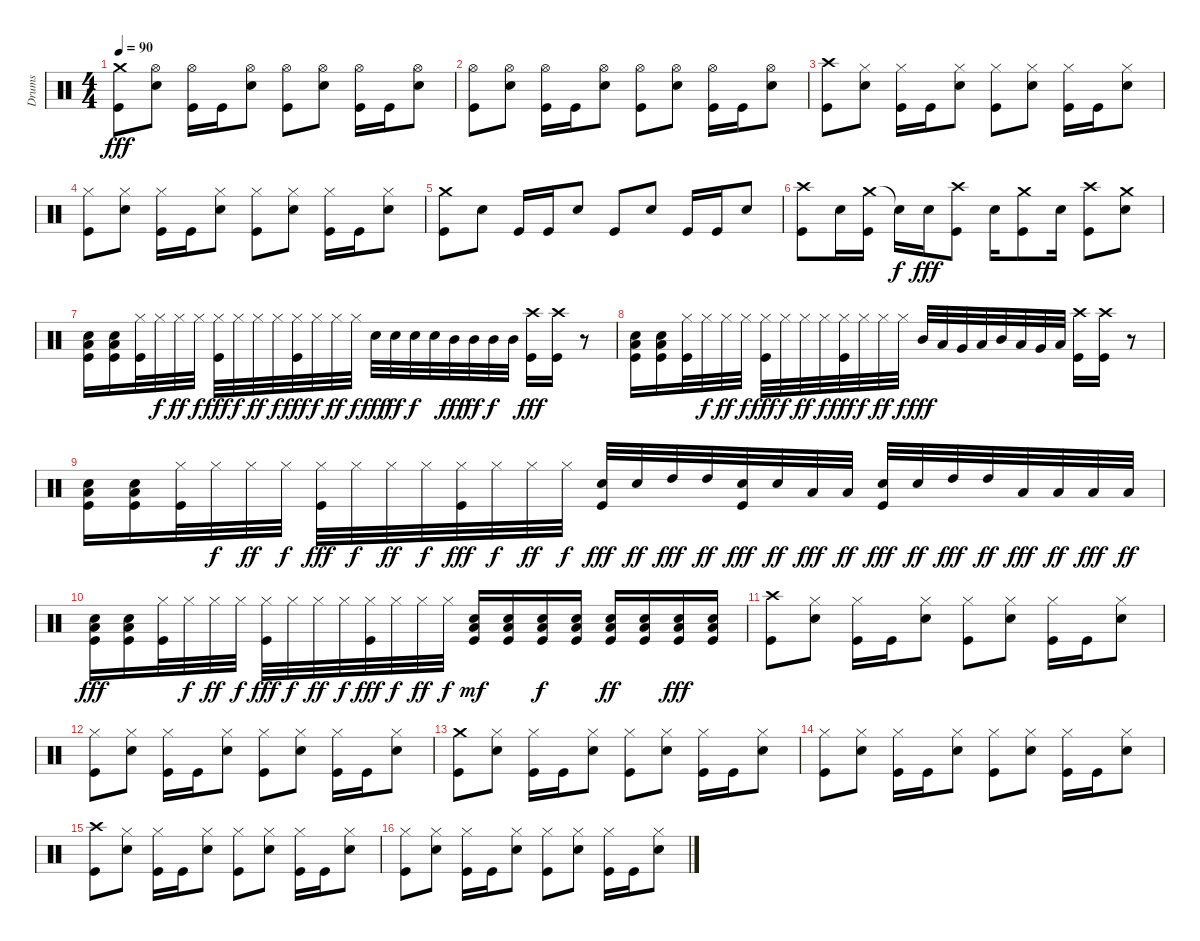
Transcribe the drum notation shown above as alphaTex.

\track ("Drums" "Drums") {instrument percussion}
\staff {score}
\articulation defaults
\ts (4 4)
\tempo 90
\clef neutral
\ks c
("Crash medium (hit)" "Kick (hit)").8{dy fff} ("Hi-Hat (open)" "Snare (hit) 2").8 ("Hi-Hat (open)" "Kick (hit)").16 "Kick (hit)".16 ("Hi-Hat (open)" "Snare (hit) 2").8 ("Hi-Hat (open)" "Kick (hit)").8 ("Hi-Hat (open)" "Snare (hit) 2").8 ("Hi-Hat (open)" "Kick (hit)").16 "Kick (hit)".16 ("Hi-Hat (open)" "Snare (hit) 2").8 |
("Hi-Hat (open)" "Kick (hit)").8 ("Hi-Hat (open)" "Snare (hit) 2").8 ("Hi-Hat (open)" "Kick (hit)").16 "Kick (hit)".16 ("Hi-Hat (open)" "Snare (hit) 2").8 ("Hi-Hat (open)" "Kick (hit)").8 ("Hi-Hat (open)" "Snare (hit) 2").8 ("Hi-Hat (open)" "Kick (hit)").16 "Kick (hit)".16 ("Hi-Hat (open)" "Snare (hit) 2").8 |
("Crash high (hit)" "Kick (hit)").8 ("Hi-Hat (closed)" "Snare (hit) 2").8 ("Hi-Hat (closed)" "Kick (hit)").16 "Kick (hit)".16 ("Hi-Hat (closed)" "Snare (hit) 2").8 ("Hi-Hat (closed)" "Kick (hit)").8 ("Hi-Hat (closed)" "Snare (hit) 2").8 ("Hi-Hat (closed)" "Kick (hit)").16 "Kick (hit)".16 ("Hi-Hat (closed)" "Snare (hit) 2").8 |
("Hi-Hat (closed)" "Kick (hit)").8 ("Hi-Hat (closed)" "Snare (hit) 2").8 ("Hi-Hat (closed)" "Kick (hit)").16 "Kick (hit)".16 ("Hi-Hat (closed)" "Snare (hit) 2").8 ("Hi-Hat (closed)" "Kick (hit)").8 ("Hi-Hat (closed)" "Snare (hit) 2").8 ("Hi-Hat (closed)" "Kick (hit)").16 "Kick (hit)".16 ("Hi-Hat (closed)" "Snare (hit) 2").8 |
("Crash medium (hit)" "Kick (hit)").8 "Snare (hit) 2".8 "Kick (hit)".16 "Kick (hit)".16 "Snare (hit) 2".8 "Kick (hit)".8 "Snare (hit) 2".8 "Kick (hit)".16 "Kick (hit)".16 "Snare (hit) 2".8 |
("Crash high (hit)" "Kick (hit)").8 "Snare (hit) 2".16 ("Crash medium (hit)" "Kick (hit)").16 "Snare (hit)"{t}.16{dy f} "Snare (hit) 2".16{dy fff} ("Crash high (hit)" "Kick (hit)").8 "Snare (hit) 2".16 ("Crash medium (hit)" "Kick (hit)").8 "Snare (hit) 2".16 ("Crash high (hit)" "Kick (hit)").8 ("Crash medium (hit)" "Snare (hit) 2").8 |
("Low Floor Tom (hit)" "Snare (hit) 2" "Kick (hit)").16 ("Low Floor Tom (hit)" "Snare (hit) 2" "Kick (hit)").16 ("Hi-Hat (closed)" "Kick (hit)").32 "Hi-Hat (closed)".32{dy f} "Hi-Hat (closed)".32{dy ff} "Hi-Hat (closed)".32{dy f} ("Hi-Hat (closed)" "Kick (hit)").32{dy fff} "Hi-Hat (closed)".32{dy f} "Hi-Hat (closed)".32{dy ff} "Hi-Hat (closed)".32{dy f} ("Hi-Hat (closed)" "Kick (hit)").32{dy fff} "Hi-Hat (closed)".32{dy f} "Hi-Hat (closed)".32{dy ff} "Hi-Hat (closed)".32{dy f} "Snare (hit) 2".32{dy fff} "Snare (hit) 2".32{dy ff} "Snare (hit) 2".32{dy f} "Snare (hit) 2".32 "Mid Tom (hit)".32{dy fff} "Mid Tom (hit)".32{dy ff} "Mid Tom (hit)".32{dy f} "Mid Tom (hit)".32 ("Crash high (hit)" "Kick (hit)").16{dy fff} ("Crash high (hit)" "Kick (hit)").16 r.8 |
("Low Floor Tom (hit)" "Snare (hit) 2" "Kick (hit)").16 ("Low Floor Tom (hit)" "Snare (hit) 2" "Kick (hit)").16 ("Hi-Hat (closed)" "Kick (hit)").32 "Hi-Hat (closed)".32{dy f} "Hi-Hat (closed)".32{dy ff} "Hi-Hat (closed)".32{dy f} ("Hi-Hat (closed)" "Kick (hit)").32{dy fff} "Hi-Hat (closed)".32{dy f} "Hi-Hat (closed)".32{dy ff} "Hi-Hat (closed)".32{dy f} ("Hi-Hat (closed)" "Kick (hit)").32{dy fff} "Hi-Hat (closed)".32{dy f} "Hi-Hat (closed)".32{dy ff} "Hi-Hat (closed)".32{dy f} "Mid Tom (hit)".32{dy fff} "Low Tom (hit)".32 "Very Low Tom (hit)".32 "Low Floor Tom (hit)".32 "Mid Tom (hit)".32 "Low Tom (hit)".32 "Very Low Tom (hit)".32 "Low Floor Tom (hit)".32 ("Crash high (hit)" "Kick (hit)").16 ("Crash high (hit)" "Kick (hit)").16 r.8 |
("Low Floor Tom (hit)" "Snare (hit) 2" "Kick (hit)").16 ("Low Floor Tom (hit)" "Snare (hit) 2" "Kick (hit)").16 ("Hi-Hat (closed)" "Kick (hit)").32 "Hi-Hat (closed)".32{dy f} "Hi-Hat (closed)".32{dy ff} "Hi-Hat (closed)".32{dy f} ("Hi-Hat (closed)" "Kick (hit)").32{dy fff} "Hi-Hat (closed)".32{dy f} "Hi-Hat (closed)".32{dy ff} "Hi-Hat (closed)".32{dy f} ("Hi-Hat (closed)" "Kick (hit)").32{dy fff} "Hi-Hat (closed)".32{dy f} "Hi-Hat (closed)".32{dy ff} "Hi-Hat (closed)".32{dy f} ("Snare (hit) 2" "Kick (hit)").32{dy fff} "Snare (hit) 2".32{dy ff} "High Tom (hit)".32{dy fff} "High Tom (hit)".32{dy ff} ("Snare (hit) 2" "Kick (hit)").32{dy fff} "Snare (hit) 2".32{dy ff} "Low Tom (hit)".32{dy fff} "Low Tom (hit)".32{dy ff} ("Snare (hit) 2" "Kick (hit)").32{dy fff} "Snare (hit) 2".32{dy ff} "High Tom (hit)".32{dy fff} "High Tom (hit)".32{dy ff} "Low Tom (hit)".32{dy fff} "Low Tom (hit)".32{dy ff} "Low Floor Tom (hit)".32{dy fff} "Low Floor Tom (hit)".32{dy ff} |
("Low Floor Tom (hit)" "Snare (hit) 2" "Kick (hit)").16{dy fff} ("Low Floor Tom (hit)" "Snare (hit) 2" "Kick (hit)").16 ("Hi-Hat (closed)" "Kick (hit)").32 "Hi-Hat (closed)".32{dy f} "Hi-Hat (closed)".32{dy ff} "Hi-Hat (closed)".32{dy f} ("Hi-Hat (closed)" "Kick (hit)").32{dy fff} "Hi-Hat (closed)".32{dy f} "Hi-Hat (closed)".32{dy ff} "Hi-Hat (closed)".32{dy f} ("Hi-Hat (closed)" "Kick (hit)").32{dy fff} "Hi-Hat (closed)".32{dy f} "Hi-Hat (closed)".32{dy ff} "Hi-Hat (closed)".32{dy f} ("Low Tom (hit)" "Snare (hit) 2" "Kick (hit)").16{dy mf} ("Low Tom (hit)" "Snare (hit) 2" "Kick (hit)").16 ("Low Tom (hit)" "Snare (hit) 2" "Kick (hit)").16{dy f} ("Low Tom (hit)" "Snare (hit) 2" "Kick (hit)").16 ("Low Tom (hit)" "Snare (hit) 2" "Kick (hit)").16{dy ff} ("Low Tom (hit)" "Snare (hit) 2" "Kick (hit)").16 ("Low Tom (hit)" "Snare (hit) 2" "Kick (hit)").16{dy fff} ("Low Tom (hit)" "Snare (hit) 2" "Kick (hit)").16 |
("Crash high (hit)" "Kick (hit)").8 ("Hi-Hat (closed)" "Snare (hit) 2").8 ("Hi-Hat (closed)" "Kick (hit)").16 "Kick (hit)".16 ("Hi-Hat (closed)" "Snare (hit) 2").8 ("Hi-Hat (closed)" "Kick (hit)").8 ("Hi-Hat (closed)" "Snare (hit) 2").8 ("Hi-Hat (closed)" "Kick (hit)").16 "Kick (hit)".16 ("Hi-Hat (closed)" "Snare (hit) 2").8 |
("Hi-Hat (closed)" "Kick (hit)").8 ("Hi-Hat (closed)" "Snare (hit) 2").8 ("Hi-Hat (closed)" "Kick (hit)").16 "Kick (hit)".16 ("Hi-Hat (closed)" "Snare (hit) 2").8 ("Hi-Hat (closed)" "Kick (hit)").8 ("Hi-Hat (closed)" "Snare (hit) 2").8 ("Hi-Hat (closed)" "Kick (hit)").16 "Kick (hit)".16 ("Hi-Hat (closed)" "Snare (hit) 2").8 |
("Crash medium (hit)" "Kick (hit)").8 ("Hi-Hat (closed)" "Snare (hit) 2").8 ("Hi-Hat (closed)" "Kick (hit)").16 "Kick (hit)".16 ("Hi-Hat (closed)" "Snare (hit) 2").8 ("Hi-Hat (closed)" "Kick (hit)").8 ("Hi-Hat (closed)" "Snare (hit) 2").8 ("Hi-Hat (closed)" "Kick (hit)").16 "Kick (hit)".16 ("Hi-Hat (closed)" "Snare (hit) 2").8 |
("Hi-Hat (closed)" "Kick (hit)").8 ("Hi-Hat (closed)" "Snare (hit) 2").8 ("Hi-Hat (closed)" "Kick (hit)").16 "Kick (hit)".16 ("Hi-Hat (closed)" "Snare (hit) 2").8 ("Hi-Hat (closed)" "Kick (hit)").8 ("Hi-Hat (closed)" "Snare (hit) 2").8 ("Hi-Hat (closed)" "Kick (hit)").16 "Kick (hit)".16 ("Hi-Hat (closed)" "Snare (hit) 2").8 |
("Crash high (hit)" "Kick (hit)").8 ("Hi-Hat (closed)" "Snare (hit) 2").8 ("Hi-Hat (closed)" "Kick (hit)").16 "Kick (hit)".16 ("Hi-Hat (closed)" "Snare (hit) 2").8 ("Hi-Hat (closed)" "Kick (hit)").8 ("Hi-Hat (closed)" "Snare (hit) 2").8 ("Hi-Hat (closed)" "Kick (hit)").16 "Kick (hit)".16 ("Hi-Hat (closed)" "Snare (hit) 2").8 |
("Hi-Hat (closed)" "Kick (hit)").8 ("Hi-Hat (closed)" "Snare (hit) 2").8 ("Hi-Hat (closed)" "Kick (hit)").16 "Kick (hit)".16 ("Hi-Hat (closed)" "Snare (hit) 2").8 ("Hi-Hat (closed)" "Kick (hit)").8 ("Hi-Hat (closed)" "Snare (hit) 2").8 ("Hi-Hat (closed)" "Kick (hit)").16 "Kick (hit)".16 ("Hi-Hat (closed)" "Snare (hit) 2").8
